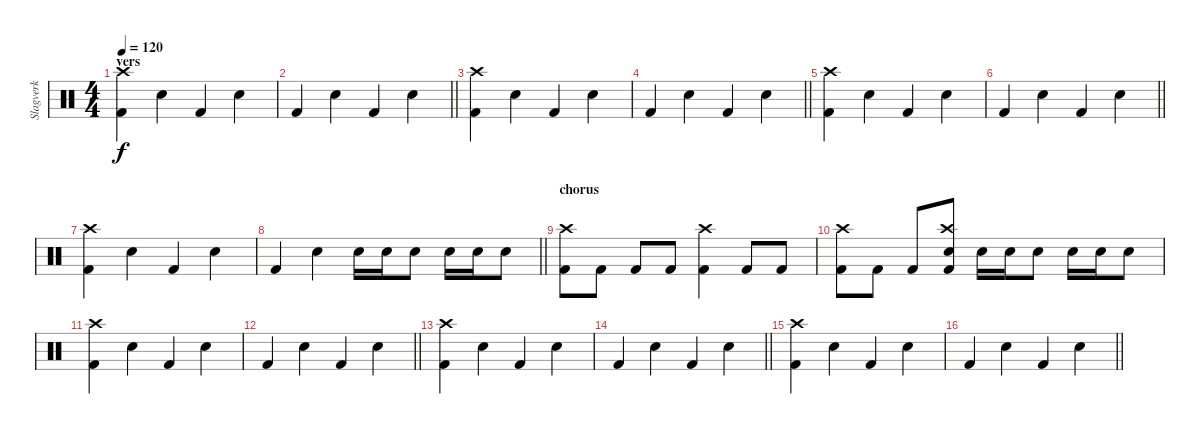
\track ("Slagverk" "Slagverk") {instrument percussion}
\staff {score}
\articulation defaults
\ts (4 4)
\section ("" "vers")
\tempo 120
\clef neutral
\ks c
("Kick (hit) 2" "Crash high (hit)").4{dy f} "Snare (hit) 2".4 "Kick (hit) 2".4 "Snare (hit) 2".4 |
\barLineRight lightlight "Kick (hit) 2".4 "Snare (hit) 2".4 "Kick (hit) 2".4 "Snare (hit) 2".4
|
("Kick (hit) 2" "Crash high (hit)").4 "Snare (hit) 2".4 "Kick (hit) 2".4 "Snare (hit) 2".4 |
\barLineRight lightlight "Kick (hit) 2".4 "Snare (hit) 2".4 "Kick (hit) 2".4 "Snare (hit) 2".4
|
("Kick (hit) 2" "Crash high (hit)").4 "Snare (hit) 2".4 "Kick (hit) 2".4 "Snare (hit) 2".4 |
\barLineRight lightlight "Kick (hit) 2".4 "Snare (hit) 2".4 "Kick (hit) 2".4 "Snare (hit) 2".4
|
("Kick (hit) 2" "Crash high (hit)").4 "Snare (hit) 2".4 "Kick (hit) 2".4 "Snare (hit) 2".4 |
\barLineRight lightlight "Kick (hit) 2".4 "Snare (hit) 2".4 "Snare (hit) 2".16 "Snare (hit) 2".16 "Snare (hit) 2".8 "Snare (hit) 2".16 "Snare (hit) 2".16 "Snare (hit) 2".8
|
\section ("" "chorus")
("Kick (hit) 2" "Crash high (hit)").8 "Kick (hit) 2".8 "Kick (hit) 2".8 "Kick (hit) 2".8 ("Kick (hit) 2" "Crash high (hit)").4 "Kick (hit) 2".8 "Kick (hit) 2".8 |
("Kick (hit) 2" "Crash high (hit)").8 "Kick (hit) 2".8 "Kick (hit) 2".8 ("Snare (hit) 2" "Crash high (hit)" "Kick (hit) 2").8 "Snare (hit) 2".16 "Snare (hit) 2".16 "Snare (hit) 2".8 "Snare (hit) 2".16 "Snare (hit) 2".16 "Snare (hit) 2".8 |
("Kick (hit) 2" "Crash high (hit)").4 "Snare (hit) 2".4 "Kick (hit) 2".4 "Snare (hit) 2".4 |
\barLineRight lightlight "Kick (hit) 2".4 "Snare (hit) 2".4 "Kick (hit) 2".4 "Snare (hit) 2".4
|
("Kick (hit) 2" "Crash high (hit)").4 "Snare (hit) 2".4 "Kick (hit) 2".4 "Snare (hit) 2".4 |
\barLineRight lightlight "Kick (hit) 2".4 "Snare (hit) 2".4 "Kick (hit) 2".4 "Snare (hit) 2".4
|
("Kick (hit) 2" "Crash high (hit)").4 "Snare (hit) 2".4 "Kick (hit) 2".4 "Snare (hit) 2".4 |
\barLineRight lightlight "Kick (hit) 2".4 "Snare (hit) 2".4 "Kick (hit) 2".4 "Snare (hit) 2".4
